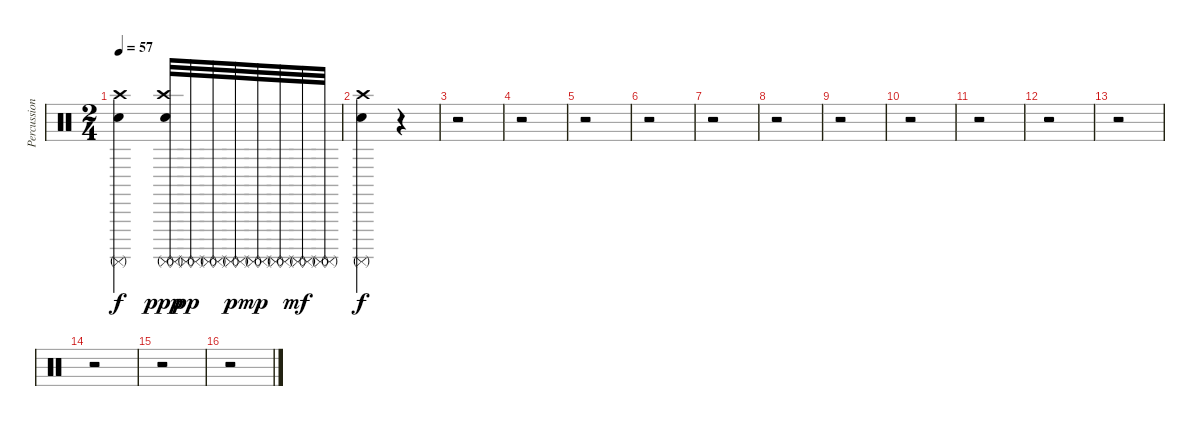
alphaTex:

\track ("Percussions" "Percussion") {instrument percussion}
\staff {score}
\articulation defaults
\ts (2 4)
\tempo 57
\clef neutral
\ks c
("Crash high (hit)" "Surdo (mute)" "Snare (hit) 2").4{dy f} ("Crash high (hit)" "Surdo (mute)" "Snare (hit) 2" "Surdo (mute)").32{dy ppp} ("Surdo (mute)" "Surdo (mute)").32{dy pp} ("Surdo (mute)" "Surdo (mute)").32 ("Surdo (mute)" "Surdo (mute)").32{dy p} ("Surdo (mute)" "Surdo (mute)").32{dy mp} ("Surdo (mute)" "Surdo (mute)").32 ("Surdo (mute)" "Surdo (mute)").32{dy mf} ("Surdo (mute)" "Surdo (mute)").32 |
("Crash high (hit)" "Surdo (mute)" "Snare (hit) 2").4{dy f} r.4 |
r.2 |
r.2 |
r.2 |
r.2 |
r.2 |
r.2 |
r.2 |
r.2 |
r.2 |
r.2 |
r.2 |
r.2 |
r.2 |
r.2
